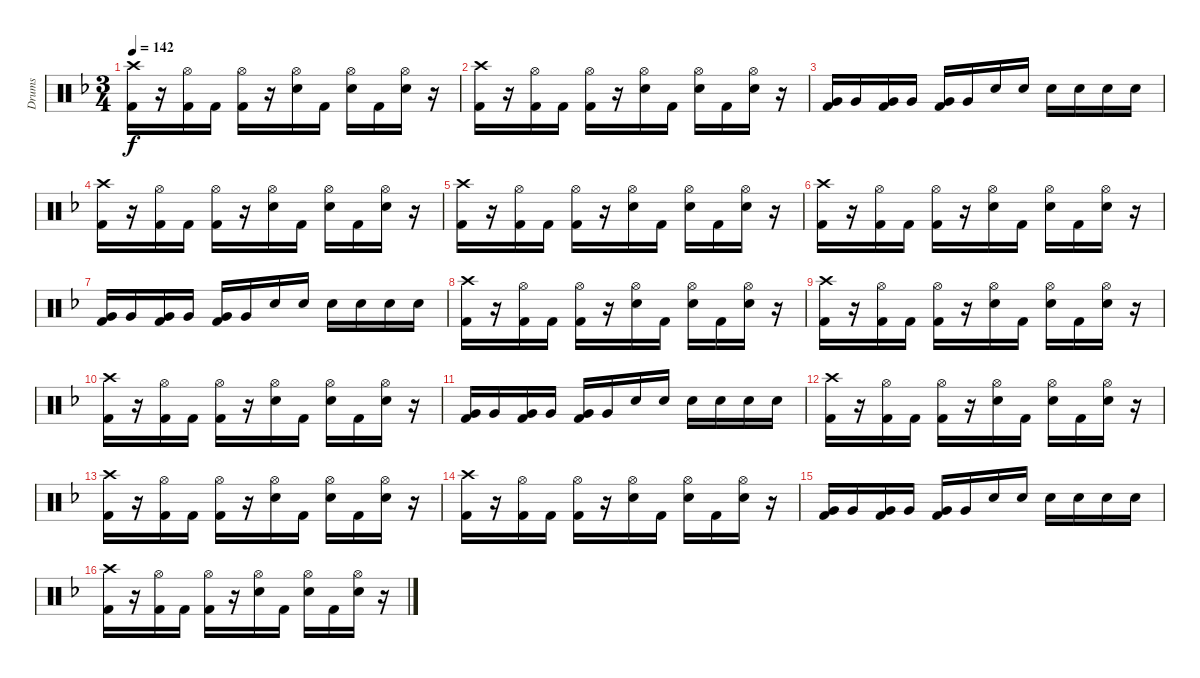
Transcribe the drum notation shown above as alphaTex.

\track ("Drums" "Drums") {instrument percussion}
\staff {score}
\articulation defaults
\ts (3 4)
\tempo 142
\clef neutral
\ks dminor
("Crash high (hit)" "Kick (hit) 2").16{dy f} r.16 ("Hi-Hat (open)" "Kick (hit) 2").16 "Kick (hit) 2".16 ("Hi-Hat (open)" "Kick (hit) 2").16 r.16 ("Hi-Hat (open)" "Electric Snare (hit)").16 "Kick (hit) 2".16 ("Hi-Hat (open)" "Electric Snare (hit)").16 "Kick (hit) 2".16 ("Hi-Hat (open)" "Electric Snare (hit)").16 r.16 |
("Crash high (hit)" "Kick (hit) 2").16 r.16 ("Hi-Hat (open)" "Kick (hit) 2").16 "Kick (hit) 2".16 ("Hi-Hat (open)" "Kick (hit) 2").16 r.16 ("Hi-Hat (open)" "Electric Snare (hit)").16 "Kick (hit) 2".16 ("Hi-Hat (open)" "Electric Snare (hit)").16 "Kick (hit) 2".16 ("Hi-Hat (open)" "Electric Snare (hit)").16 r.16 |
("Very Low Tom (hit)" "Kick (hit) 2").16 "Very Low Tom (hit)".16 ("Very Low Tom (hit)" "Kick (hit) 2").16 "Very Low Tom (hit)".16 ("Very Low Tom (hit)" "Kick (hit) 2").16 "Very Low Tom (hit)".16 "Electric Snare (hit)".16 "Electric Snare (hit)".16 "Electric Snare (hit)".16 "Electric Snare (hit)".16 "Electric Snare (hit)".16 "Electric Snare (hit)".16 |
("Crash high (hit)" "Kick (hit) 2").16 r.16 ("Hi-Hat (open)" "Kick (hit) 2").16 "Kick (hit) 2".16 ("Hi-Hat (open)" "Kick (hit) 2").16 r.16 ("Hi-Hat (open)" "Electric Snare (hit)").16 "Kick (hit) 2".16 ("Hi-Hat (open)" "Electric Snare (hit)").16 "Kick (hit) 2".16 ("Hi-Hat (open)" "Electric Snare (hit)").16 r.16 |
("Crash high (hit)" "Kick (hit) 2").16 r.16 ("Hi-Hat (open)" "Kick (hit) 2").16 "Kick (hit) 2".16 ("Hi-Hat (open)" "Kick (hit) 2").16 r.16 ("Hi-Hat (open)" "Electric Snare (hit)").16 "Kick (hit) 2".16 ("Hi-Hat (open)" "Electric Snare (hit)").16 "Kick (hit) 2".16 ("Hi-Hat (open)" "Electric Snare (hit)").16 r.16 |
("Crash high (hit)" "Kick (hit) 2").16 r.16 ("Hi-Hat (open)" "Kick (hit) 2").16 "Kick (hit) 2".16 ("Hi-Hat (open)" "Kick (hit) 2").16 r.16 ("Hi-Hat (open)" "Electric Snare (hit)").16 "Kick (hit) 2".16 ("Hi-Hat (open)" "Electric Snare (hit)").16 "Kick (hit) 2".16 ("Hi-Hat (open)" "Electric Snare (hit)").16 r.16 |
("Very Low Tom (hit)" "Kick (hit) 2").16 "Very Low Tom (hit)".16 ("Very Low Tom (hit)" "Kick (hit) 2").16 "Very Low Tom (hit)".16 ("Very Low Tom (hit)" "Kick (hit) 2").16 "Very Low Tom (hit)".16 "Electric Snare (hit)".16 "Electric Snare (hit)".16 "Electric Snare (hit)".16 "Electric Snare (hit)".16 "Electric Snare (hit)".16 "Electric Snare (hit)".16 |
("Crash high (hit)" "Kick (hit) 2").16 r.16 ("Hi-Hat (open)" "Kick (hit) 2").16 "Kick (hit) 2".16 ("Hi-Hat (open)" "Kick (hit) 2").16 r.16 ("Hi-Hat (open)" "Electric Snare (hit)").16 "Kick (hit) 2".16 ("Hi-Hat (open)" "Electric Snare (hit)").16 "Kick (hit) 2".16 ("Hi-Hat (open)" "Electric Snare (hit)").16 r.16 |
("Crash high (hit)" "Kick (hit) 2").16 r.16 ("Hi-Hat (open)" "Kick (hit) 2").16 "Kick (hit) 2".16 ("Hi-Hat (open)" "Kick (hit) 2").16 r.16 ("Hi-Hat (open)" "Electric Snare (hit)").16 "Kick (hit) 2".16 ("Hi-Hat (open)" "Electric Snare (hit)").16 "Kick (hit) 2".16 ("Hi-Hat (open)" "Electric Snare (hit)").16 r.16 |
("Crash high (hit)" "Kick (hit) 2").16 r.16 ("Hi-Hat (open)" "Kick (hit) 2").16 "Kick (hit) 2".16 ("Hi-Hat (open)" "Kick (hit) 2").16 r.16 ("Hi-Hat (open)" "Electric Snare (hit)").16 "Kick (hit) 2".16 ("Hi-Hat (open)" "Electric Snare (hit)").16 "Kick (hit) 2".16 ("Hi-Hat (open)" "Electric Snare (hit)").16 r.16 |
("Very Low Tom (hit)" "Kick (hit) 2").16 "Very Low Tom (hit)".16 ("Very Low Tom (hit)" "Kick (hit) 2").16 "Very Low Tom (hit)".16 ("Very Low Tom (hit)" "Kick (hit) 2").16 "Very Low Tom (hit)".16 "Electric Snare (hit)".16 "Electric Snare (hit)".16 "Electric Snare (hit)".16 "Electric Snare (hit)".16 "Electric Snare (hit)".16 "Electric Snare (hit)".16 |
("Crash high (hit)" "Kick (hit) 2").16 r.16 ("Hi-Hat (open)" "Kick (hit) 2").16 "Kick (hit) 2".16 ("Hi-Hat (open)" "Kick (hit) 2").16 r.16 ("Hi-Hat (open)" "Electric Snare (hit)").16 "Kick (hit) 2".16 ("Hi-Hat (open)" "Electric Snare (hit)").16 "Kick (hit) 2".16 ("Hi-Hat (open)" "Electric Snare (hit)").16 r.16 |
("Crash high (hit)" "Kick (hit) 2").16 r.16 ("Hi-Hat (open)" "Kick (hit) 2").16 "Kick (hit) 2".16 ("Hi-Hat (open)" "Kick (hit) 2").16 r.16 ("Hi-Hat (open)" "Electric Snare (hit)").16 "Kick (hit) 2".16 ("Hi-Hat (open)" "Electric Snare (hit)").16 "Kick (hit) 2".16 ("Hi-Hat (open)" "Electric Snare (hit)").16 r.16 |
("Crash high (hit)" "Kick (hit) 2").16 r.16 ("Hi-Hat (open)" "Kick (hit) 2").16 "Kick (hit) 2".16 ("Hi-Hat (open)" "Kick (hit) 2").16 r.16 ("Hi-Hat (open)" "Electric Snare (hit)").16 "Kick (hit) 2".16 ("Hi-Hat (open)" "Electric Snare (hit)").16 "Kick (hit) 2".16 ("Hi-Hat (open)" "Electric Snare (hit)").16 r.16 |
("Very Low Tom (hit)" "Kick (hit) 2").16 "Very Low Tom (hit)".16 ("Very Low Tom (hit)" "Kick (hit) 2").16 "Very Low Tom (hit)".16 ("Very Low Tom (hit)" "Kick (hit) 2").16 "Very Low Tom (hit)".16 "Electric Snare (hit)".16 "Electric Snare (hit)".16 "Electric Snare (hit)".16 "Electric Snare (hit)".16 "Electric Snare (hit)".16 "Electric Snare (hit)".16 |
("Crash high (hit)" "Kick (hit) 2").16 r.16 ("Hi-Hat (open)" "Kick (hit) 2").16 "Kick (hit) 2".16 ("Hi-Hat (open)" "Kick (hit) 2").16 r.16 ("Hi-Hat (open)" "Electric Snare (hit)").16 "Kick (hit) 2".16 ("Hi-Hat (open)" "Electric Snare (hit)").16 "Kick (hit) 2".16 ("Hi-Hat (open)" "Electric Snare (hit)").16 r.16
